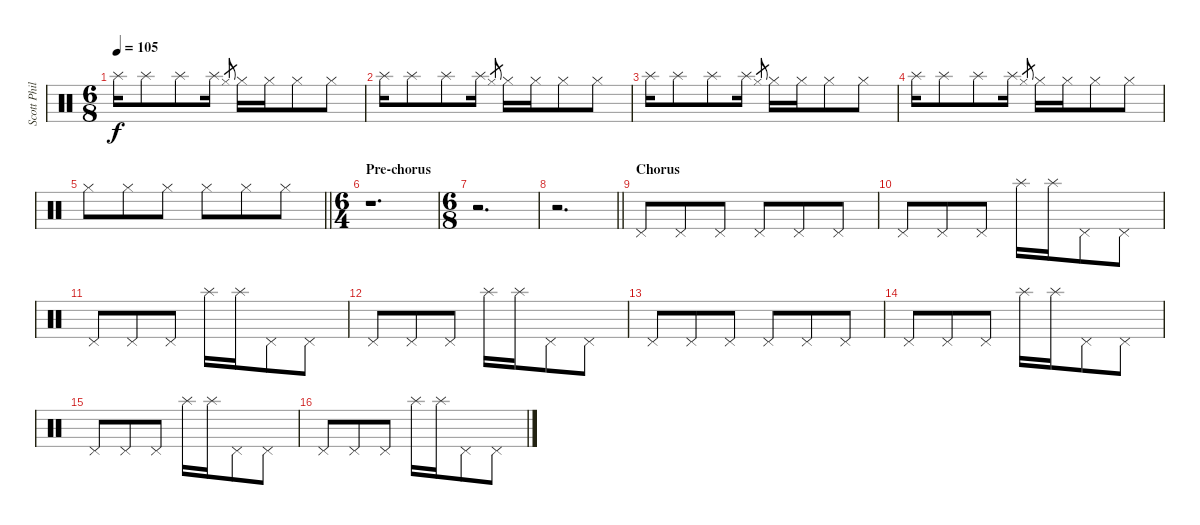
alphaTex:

\track ("Scott Phillips (Drums)" "Scott Phil") {instrument percussion}
\staff {score}
\articulation defaults
\ts (6 8)
\tempo 105
\clef neutral
\ks c "Splash (hit)".16{dy f} "Splash (hit)".8 "Splash (hit)".8 "Splash (hit)".16 "Hi-Hat (closed)".8{gr} "Hi-Hat (closed)".16 "Hi-Hat (closed)".16 "Hi-Hat (closed)".8 "Hi-Hat (closed)".8
|
"Splash (hit)".16 "Splash (hit)".8 "Splash (hit)".8 "Splash (hit)".16 "Hi-Hat (closed)".8{gr} "Hi-Hat (closed)".16 "Hi-Hat (closed)".16 "Hi-Hat (closed)".8 "Hi-Hat (closed)".8 |
"Splash (hit)".16 "Splash (hit)".8 "Splash (hit)".8 "Splash (hit)".16 "Hi-Hat (closed)".8{gr} "Hi-Hat (closed)".16 "Hi-Hat (closed)".16 "Hi-Hat (closed)".8 "Hi-Hat (closed)".8 |
"Splash (hit)".16 "Splash (hit)".8 "Splash (hit)".8 "Splash (hit)".16 "Hi-Hat (closed)".8{gr} "Hi-Hat (closed)".16 "Hi-Hat (closed)".16 "Hi-Hat (closed)".8 "Hi-Hat (closed)".8 |
\barLineRight lightlight "Hi-Hat (closed)".8 "Hi-Hat (closed)".8 "Hi-Hat (closed)".8 "Hi-Hat (closed)".8 "Hi-Hat (closed)".8 "Hi-Hat (closed)".8
|
\ts (6 4)
\section ("" "Pre-chorus")
r.1{d} |
\ts (6 8)
r.2{d} |
\barLineRight lightlight
r.2{d} |
\section ("" "Chorus")
"Pedal Hi-Hat (hit)".8 "Pedal Hi-Hat (hit)".8 "Pedal Hi-Hat (hit)".8 "Pedal Hi-Hat (hit)".8 "Pedal Hi-Hat (hit)".8 "Pedal Hi-Hat (hit)".8 |
"Pedal Hi-Hat (hit)".8 "Pedal Hi-Hat (hit)".8 "Pedal Hi-Hat (hit)".8 "Splash (hit)".16 "Splash (hit)".16 "Pedal Hi-Hat (hit)".8 "Pedal Hi-Hat (hit)".8 |
"Pedal Hi-Hat (hit)".8 "Pedal Hi-Hat (hit)".8 "Pedal Hi-Hat (hit)".8 "Splash (hit)".16 "Splash (hit)".16 "Pedal Hi-Hat (hit)".8 "Pedal Hi-Hat (hit)".8 |
"Pedal Hi-Hat (hit)".8 "Pedal Hi-Hat (hit)".8 "Pedal Hi-Hat (hit)".8 "Splash (hit)".16 "Splash (hit)".16 "Pedal Hi-Hat (hit)".8 "Pedal Hi-Hat (hit)".8 |
"Pedal Hi-Hat (hit)".8 "Pedal Hi-Hat (hit)".8 "Pedal Hi-Hat (hit)".8 "Pedal Hi-Hat (hit)".8 "Pedal Hi-Hat (hit)".8 "Pedal Hi-Hat (hit)".8 |
"Pedal Hi-Hat (hit)".8 "Pedal Hi-Hat (hit)".8 "Pedal Hi-Hat (hit)".8 "Splash (hit)".16 "Splash (hit)".16 "Pedal Hi-Hat (hit)".8 "Pedal Hi-Hat (hit)".8 |
"Pedal Hi-Hat (hit)".8 "Pedal Hi-Hat (hit)".8 "Pedal Hi-Hat (hit)".8 "Splash (hit)".16 "Splash (hit)".16 "Pedal Hi-Hat (hit)".8 "Pedal Hi-Hat (hit)".8 |
"Pedal Hi-Hat (hit)".8 "Pedal Hi-Hat (hit)".8 "Pedal Hi-Hat (hit)".8 "Splash (hit)".16 "Splash (hit)".16 "Pedal Hi-Hat (hit)".8 "Pedal Hi-Hat (hit)".8
